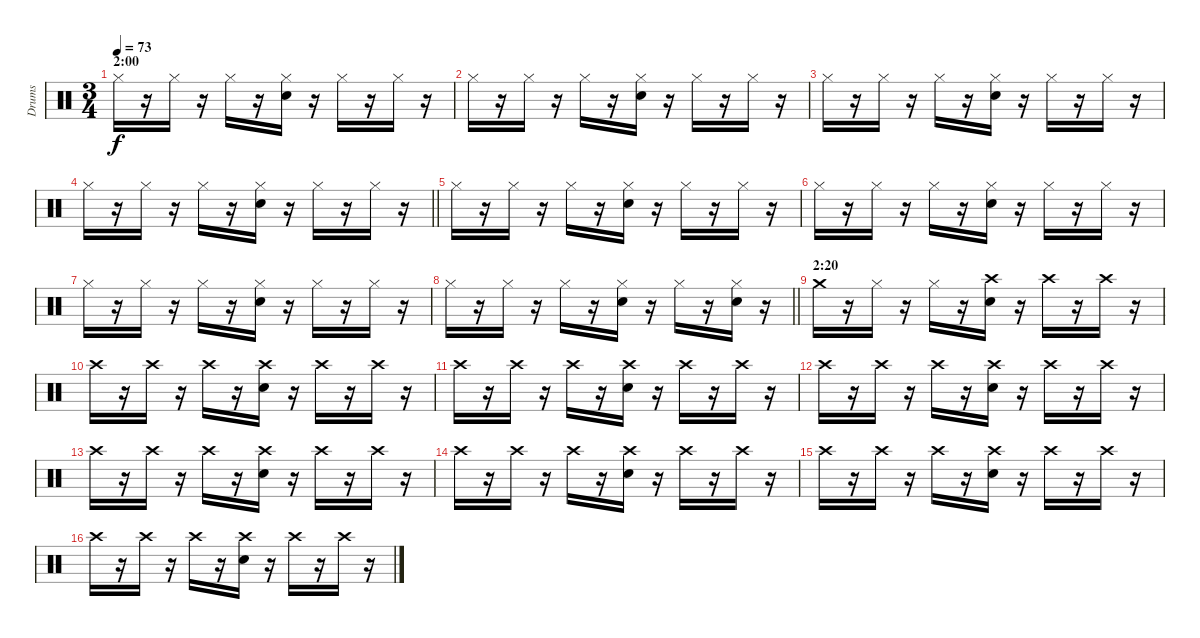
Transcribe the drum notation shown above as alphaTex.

\track ("Drums" "Drums") {instrument percussion}
\staff {score}
\articulation defaults
\ts (3 4)
\section ("" "2:00")
\tempo 73
\clef neutral
\ks c "Hi-Hat (closed)".16{dy f}
r.16 "Hi-Hat (closed)".16 r.16 "Hi-Hat (closed)".16 r.16 ("Hi-Hat (closed)" "Electric Snare (hit)").16 r.16 "Hi-Hat (closed)".16 r.16 "Hi-Hat (closed)".16 r.16 |
"Hi-Hat (closed)".16 r.16 "Hi-Hat (closed)".16 r.16 "Hi-Hat (closed)".16 r.16 ("Hi-Hat (closed)" "Electric Snare (hit)").16 r.16 "Hi-Hat (closed)".16 r.16 "Hi-Hat (closed)".16 r.16 |
"Hi-Hat (closed)".16 r.16 "Hi-Hat (closed)".16 r.16 "Hi-Hat (closed)".16 r.16 ("Hi-Hat (closed)" "Electric Snare (hit)").16 r.16 "Hi-Hat (closed)".16 r.16 "Hi-Hat (closed)".16 r.16 |
\barLineRight lightlight "Hi-Hat (closed)".16
r.16 "Hi-Hat (closed)".16 r.16 "Hi-Hat (closed)".16 r.16 ("Hi-Hat (closed)" "Electric Snare (hit)").16 r.16 "Hi-Hat (closed)".16 r.16 "Hi-Hat (closed)".16 r.16 |
"Hi-Hat (closed)".16 r.16 "Hi-Hat (closed)".16 r.16 "Hi-Hat (closed)".16 r.16 ("Hi-Hat (closed)" "Electric Snare (hit)").16 r.16 "Hi-Hat (closed)".16 r.16 "Hi-Hat (closed)".16 r.16 |
"Hi-Hat (closed)".16 r.16 "Hi-Hat (closed)".16 r.16 "Hi-Hat (closed)".16 r.16 ("Hi-Hat (closed)" "Electric Snare (hit)").16 r.16 "Hi-Hat (closed)".16 r.16 "Hi-Hat (closed)".16 r.16 |
"Hi-Hat (closed)".16 r.16 "Hi-Hat (closed)".16 r.16 "Hi-Hat (closed)".16 r.16 ("Hi-Hat (closed)" "Electric Snare (hit)").16 r.16 "Hi-Hat (closed)".16 r.16 "Hi-Hat (closed)".16 r.16 |
\barLineRight lightlight "Hi-Hat (closed)".16
r.16 "Hi-Hat (closed)".16 r.16 "Hi-Hat (closed)".16 r.16 ("Hi-Hat (closed)" "Electric Snare (hit)").16 r.16 "Hi-Hat (closed)".16 r.16 ("Hi-Hat (closed)" "Electric Snare (hit)").16 r.16 |
\section ("" "2:20")
"Crash medium (hit)".16 r.16 "Hi-Hat (closed)".16 r.16 "Hi-Hat (closed)".16 r.16 ("Crash high (hit)" "Electric Snare (hit)").16 r.16 "Crash high (hit)".16 r.16 "Crash high (hit)".16 r.16 |
"Crash high (hit)".16 r.16 "Crash high (hit)".16 r.16 "Crash high (hit)".16 r.16 ("Crash high (hit)" "Electric Snare (hit)").16 r.16 "Crash high (hit)".16 r.16 "Crash high (hit)".16 r.16 |
"Crash high (hit)".16 r.16 "Crash high (hit)".16 r.16 "Crash high (hit)".16 r.16 ("Crash high (hit)" "Electric Snare (hit)").16 r.16 "Crash high (hit)".16 r.16 "Crash high (hit)".16 r.16 |
"Crash high (hit)".16 r.16 "Crash high (hit)".16 r.16 "Crash high (hit)".16 r.16 ("Crash high (hit)" "Electric Snare (hit)").16 r.16 "Crash high (hit)".16 r.16 "Crash high (hit)".16 r.16 |
"Crash high (hit)".16 r.16 "Crash high (hit)".16 r.16 "Crash high (hit)".16 r.16 ("Crash high (hit)" "Electric Snare (hit)").16 r.16 "Crash high (hit)".16 r.16 "Crash high (hit)".16 r.16 |
"Crash high (hit)".16 r.16 "Crash high (hit)".16 r.16 "Crash high (hit)".16 r.16 ("Crash high (hit)" "Electric Snare (hit)").16 r.16 "Crash high (hit)".16 r.16 "Crash high (hit)".16 r.16 |
"Crash high (hit)".16 r.16 "Crash high (hit)".16 r.16 "Crash high (hit)".16 r.16 ("Crash high (hit)" "Electric Snare (hit)").16 r.16 "Crash high (hit)".16 r.16 "Crash high (hit)".16 r.16 |
"Crash high (hit)".16 r.16 "Crash high (hit)".16 r.16 "Crash high (hit)".16 r.16 ("Crash high (hit)" "Electric Snare (hit)").16 r.16 "Crash high (hit)".16 r.16 "Crash high (hit)".16 r.16
